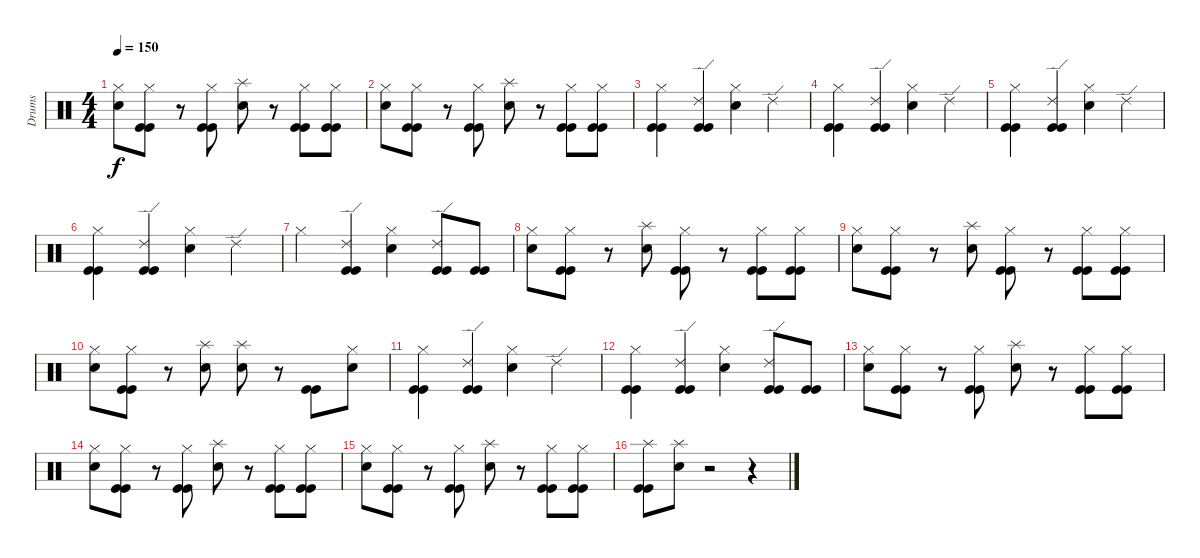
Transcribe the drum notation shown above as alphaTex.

\track ("Drums" "Drums") {instrument percussion}
\staff {score}
\articulation defaults
\ts (4 4)
\tempo 150
\clef neutral
\ks c
("Hi-Hat (closed)" "Snare (hit) 2").8{dy f} ("Hi-Hat (closed)" "Kick (hit)" "Kick (hit)").8 r.8 ("Hi-Hat (closed)" "Kick (hit)" "Kick (hit)").8 ("Splash (hit)" "Snare (hit) 2").8 r.8 ("Hi-Hat (closed)" "Kick (hit)" "Kick (hit)").8 ("Hi-Hat (closed)" "Kick (hit)" "Kick (hit)").8 |
("Hi-Hat (closed)" "Snare (hit) 2").8 ("Hi-Hat (closed)" "Kick (hit)" "Kick (hit)").8 r.8 ("Hi-Hat (closed)" "Kick (hit)" "Kick (hit)").8 ("Splash (hit)" "Snare (hit) 2").8 r.8 ("Hi-Hat (closed)" "Kick (hit)" "Kick (hit)").8 ("Hi-Hat (closed)" "Kick (hit)" "Kick (hit)").8 |
("Hi-Hat (closed)" "Kick (hit)" "Kick (hit)").4 ("Ride (edge) 2" "Kick (hit)" "Kick (hit)").4 ("Hi-Hat (closed)" "Snare (hit) 2").4 "Ride (edge) 2".4 |
("Hi-Hat (closed)" "Kick (hit)" "Kick (hit)").4 ("Ride (edge) 2" "Kick (hit)" "Kick (hit)").4 ("Hi-Hat (closed)" "Snare (hit) 2").4 "Ride (edge) 2".4 |
("Hi-Hat (closed)" "Kick (hit)" "Kick (hit)").4 ("Ride (edge) 2" "Kick (hit)" "Kick (hit)").4 ("Hi-Hat (closed)" "Snare (hit) 2").4 "Ride (edge) 2".4 |
("Hi-Hat (closed)" "Kick (hit)" "Kick (hit)").4 ("Ride (edge) 2" "Kick (hit)" "Kick (hit)").4 ("Hi-Hat (closed)" "Snare (hit) 2").4 "Ride (edge) 2".4 |
"Hi-Hat (closed)".4 ("Ride (edge) 2" "Kick (hit)" "Kick (hit)").4 ("Hi-Hat (closed)" "Snare (hit) 2").4 ("Ride (edge) 2" "Kick (hit)" "Kick (hit)").8 ("Kick (hit)" "Kick (hit)").8 |
("Hi-Hat (closed)" "Snare (hit) 2").8 ("Hi-Hat (closed)" "Kick (hit)" "Kick (hit)").8 r.8 ("Splash (hit)" "Snare (hit) 2").8 ("Hi-Hat (closed)" "Kick (hit)" "Kick (hit)").8 r.8 ("Hi-Hat (closed)" "Kick (hit)" "Kick (hit)").8 ("Hi-Hat (closed)" "Kick (hit)" "Kick (hit)").8 |
("Hi-Hat (closed)" "Snare (hit) 2").8 ("Hi-Hat (closed)" "Kick (hit)" "Kick (hit)").8 r.8 ("Splash (hit)" "Snare (hit) 2").8 ("Hi-Hat (closed)" "Kick (hit)" "Kick (hit)").8 r.8 ("Hi-Hat (closed)" "Kick (hit)" "Kick (hit)").8 ("Hi-Hat (closed)" "Kick (hit)" "Kick (hit)").8 |
("Hi-Hat (closed)" "Snare (hit) 2").8 ("Hi-Hat (closed)" "Kick (hit)" "Kick (hit)").8 r.8 ("Splash (hit)" "Snare (hit) 2").8 ("Splash (hit)" "Snare (hit) 2").8 r.8 ("Kick (hit)" "Kick (hit)").8 ("Hi-Hat (closed)" "Snare (hit) 2").8 |
("Hi-Hat (closed)" "Kick (hit)" "Kick (hit)").4 ("Ride (edge) 2" "Kick (hit)" "Kick (hit)").4 ("Hi-Hat (closed)" "Snare (hit) 2").4 "Ride (edge) 2".4 |
("Hi-Hat (closed)" "Kick (hit)" "Kick (hit)").4 ("Ride (edge) 2" "Kick (hit)" "Kick (hit)").4 ("Hi-Hat (closed)" "Snare (hit) 2").4 ("Ride (edge) 2" "Kick (hit)" "Kick (hit)").8 ("Kick (hit)" "Kick (hit)").8 |
("Hi-Hat (closed)" "Snare (hit) 2").8 ("Hi-Hat (closed)" "Kick (hit)" "Kick (hit)").8 r.8 ("Hi-Hat (closed)" "Kick (hit)" "Kick (hit)").8 ("Splash (hit)" "Snare (hit) 2").8 r.8 ("Hi-Hat (closed)" "Kick (hit)" "Kick (hit)").8 ("Hi-Hat (closed)" "Kick (hit)" "Kick (hit)").8 |
("Hi-Hat (closed)" "Snare (hit) 2").8 ("Hi-Hat (closed)" "Kick (hit)" "Kick (hit)").8 r.8 ("Hi-Hat (closed)" "Kick (hit)" "Kick (hit)").8 ("Splash (hit)" "Snare (hit) 2").8 r.8 ("Hi-Hat (closed)" "Kick (hit)" "Kick (hit)").8 ("Hi-Hat (closed)" "Kick (hit)" "Kick (hit)").8 |
("Hi-Hat (closed)" "Snare (hit) 2").8 ("Hi-Hat (closed)" "Kick (hit)" "Kick (hit)").8 r.8 ("Hi-Hat (closed)" "Kick (hit)" "Kick (hit)").8 ("Splash (hit)" "Snare (hit) 2").8 r.8 ("Hi-Hat (closed)" "Kick (hit)" "Kick (hit)").8 ("Hi-Hat (closed)" "Kick (hit)" "Kick (hit)").8 |
("Splash (hit)" "Kick (hit)" "Kick (hit)").8 ("Splash (hit)" "Snare (hit) 2").8 r.2 r.4
